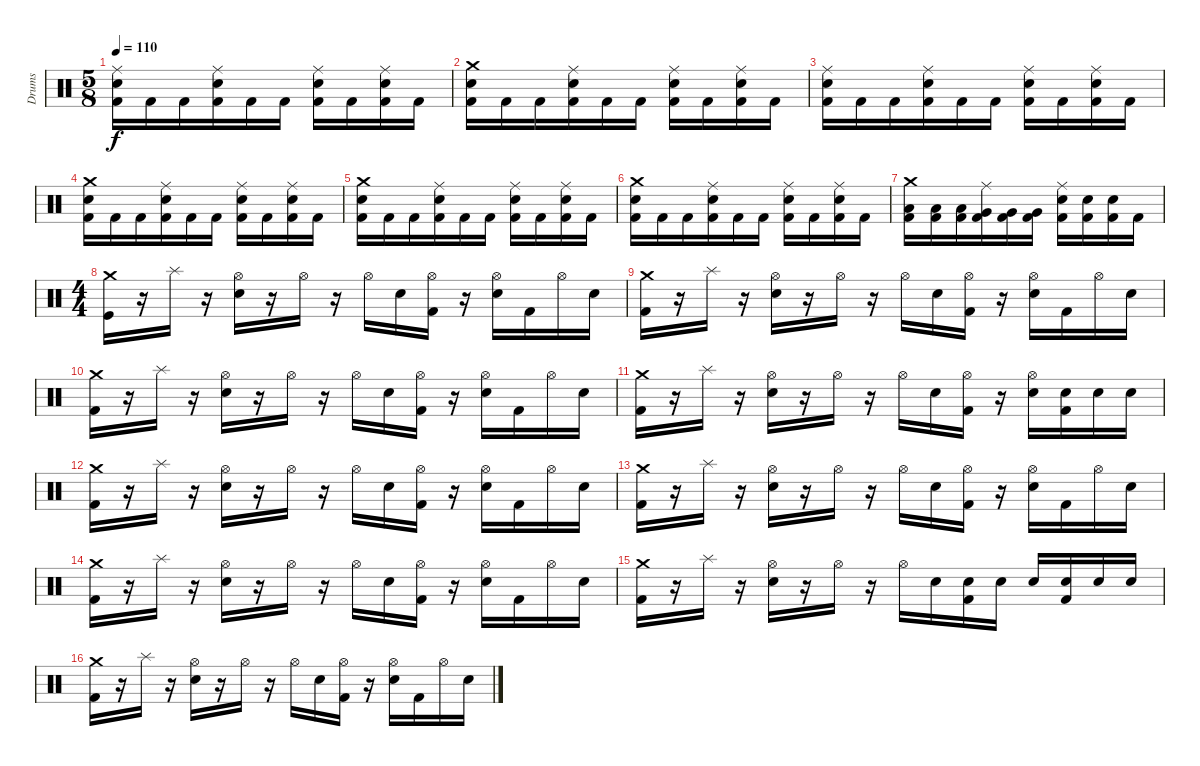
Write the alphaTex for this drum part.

\track ("Drums" "Drums") {instrument percussion}
\staff {score}
\articulation defaults
\ts (5 8)
\tempo 110
\clef neutral
\ks c
("Ride (middle)" "Electric Snare (hit)" "Kick (hit) 2").16{dy f} "Kick (hit) 2".16 "Kick (hit) 2".16 ("Ride (middle)" "Electric Snare (hit)" "Kick (hit) 2").16 "Kick (hit) 2".16 "Kick (hit) 2".16 ("Ride (middle)" "Electric Snare (hit)" "Kick (hit) 2").16 "Kick (hit) 2".16 ("Ride (middle)" "Electric Snare (hit)" "Kick (hit) 2").16 "Kick (hit) 2".16 |
("Crash medium (hit)" "Electric Snare (hit)" "Kick (hit) 2").16 "Kick (hit) 2".16 "Kick (hit) 2".16 ("Ride (middle)" "Electric Snare (hit)" "Kick (hit) 2").16 "Kick (hit) 2".16 "Kick (hit) 2".16 ("Ride (middle)" "Electric Snare (hit)" "Kick (hit) 2").16 "Kick (hit) 2".16 ("Ride (middle)" "Electric Snare (hit)" "Kick (hit) 2").16 "Kick (hit) 2".16 |
("Ride (middle)" "Electric Snare (hit)" "Kick (hit) 2").16 "Kick (hit) 2".16 "Kick (hit) 2".16 ("Ride (middle)" "Electric Snare (hit)" "Kick (hit) 2").16 "Kick (hit) 2".16 "Kick (hit) 2".16 ("Ride (middle)" "Electric Snare (hit)" "Kick (hit) 2").16 "Kick (hit) 2".16 ("Ride (middle)" "Electric Snare (hit)" "Kick (hit) 2").16 "Kick (hit) 2".16 |
("Crash medium (hit)" "Electric Snare (hit)" "Kick (hit) 2").16 "Kick (hit) 2".16 "Kick (hit) 2".16 ("Ride (middle)" "Electric Snare (hit)" "Kick (hit) 2").16 "Kick (hit) 2".16 "Kick (hit) 2".16 ("Ride (middle)" "Electric Snare (hit)" "Kick (hit) 2").16 "Kick (hit) 2".16 ("Ride (middle)" "Electric Snare (hit)" "Kick (hit) 2").16 "Kick (hit) 2".16 |
("Crash medium (hit)" "Electric Snare (hit)" "Kick (hit) 2").16 "Kick (hit) 2".16 "Kick (hit) 2".16 ("Ride (middle)" "Electric Snare (hit)" "Kick (hit) 2").16 "Kick (hit) 2".16 "Kick (hit) 2".16 ("Ride (middle)" "Electric Snare (hit)" "Kick (hit) 2").16 "Kick (hit) 2".16 ("Ride (middle)" "Electric Snare (hit)" "Kick (hit) 2").16 "Kick (hit) 2".16 |
("Crash medium (hit)" "Electric Snare (hit)" "Kick (hit) 2").16 "Kick (hit) 2".16 "Kick (hit) 2".16 ("Ride (middle)" "Electric Snare (hit)" "Kick (hit) 2").16 "Kick (hit) 2".16 "Kick (hit) 2".16 ("Ride (middle)" "Electric Snare (hit)" "Kick (hit) 2").16 "Kick (hit) 2".16 ("Ride (middle)" "Electric Snare (hit)" "Kick (hit) 2").16 "Kick (hit) 2".16 |
("Crash medium (hit)" "Low Tom (hit)" "Kick (hit) 2").16 ("Low Tom (hit)" "Kick (hit) 2").16 ("Low Tom (hit)" "Kick (hit) 2").16 ("Ride (middle)" "Very Low Tom (hit)" "Kick (hit) 2").16 ("Very Low Tom (hit)" "Kick (hit) 2").16 ("Very Low Tom (hit)" "Kick (hit) 2").16 ("Ride (middle)" "Electric Snare (hit)" "Kick (hit) 2").16 ("Electric Snare (hit)" "Kick (hit) 2").16 ("Electric Snare (hit)" "Kick (hit) 2").16 "Kick (hit) 2".16 |
\ts (4 4)
("Crash medium (hit)" "Kick (hit)").16 r.16 "Splash (hit)".16 r.16 ("Hi-Hat (open)" "Electric Snare (hit)").16 r.16 "Hi-Hat (open)".16 r.16 "Hi-Hat (open)".16 "Electric Snare (hit)".16 ("Hi-Hat (open)" "Kick (hit) 2").16 r.16 ("Hi-Hat (open)" "Electric Snare (hit)").16 "Kick (hit) 2".16 "Hi-Hat (open)".16 "Electric Snare (hit)".16 |
("Crash medium (hit)" "Kick (hit) 2").16 r.16 "Splash (hit)".16 r.16 ("Hi-Hat (open)" "Electric Snare (hit)").16 r.16 "Hi-Hat (open)".16 r.16 "Hi-Hat (open)".16 "Electric Snare (hit)".16 ("Hi-Hat (open)" "Kick (hit) 2").16 r.16 ("Hi-Hat (open)" "Electric Snare (hit)").16 "Kick (hit) 2".16 "Hi-Hat (open)".16 "Electric Snare (hit)".16 |
("Crash medium (hit)" "Kick (hit) 2").16 r.16 "Splash (hit)".16 r.16 ("Hi-Hat (open)" "Electric Snare (hit)").16 r.16 "Hi-Hat (open)".16 r.16 "Hi-Hat (open)".16 "Electric Snare (hit)".16 ("Hi-Hat (open)" "Kick (hit) 2").16 r.16 ("Hi-Hat (open)" "Electric Snare (hit)").16 "Kick (hit) 2".16 "Hi-Hat (open)".16 "Electric Snare (hit)".16 |
("Crash medium (hit)" "Kick (hit) 2").16 r.16 "Splash (hit)".16 r.16 ("Hi-Hat (open)" "Electric Snare (hit)").16 r.16 "Hi-Hat (open)".16 r.16 "Hi-Hat (open)".16 "Electric Snare (hit)".16 ("Hi-Hat (open)" "Kick (hit) 2").16 r.16 ("Hi-Hat (open)" "Electric Snare (hit)").16 ("Electric Snare (hit)" "Kick (hit) 2").16 "Electric Snare (hit)".16 "Electric Snare (hit)".16 |
("Crash medium (hit)" "Kick (hit) 2").16 r.16 "Splash (hit)".16 r.16 ("Hi-Hat (open)" "Electric Snare (hit)").16 r.16 "Hi-Hat (open)".16 r.16 "Hi-Hat (open)".16 "Electric Snare (hit)".16 ("Hi-Hat (open)" "Kick (hit) 2").16 r.16 ("Hi-Hat (open)" "Electric Snare (hit)").16 "Kick (hit) 2".16 "Hi-Hat (open)".16 "Electric Snare (hit)".16 |
("Crash medium (hit)" "Kick (hit) 2").16 r.16 "Splash (hit)".16 r.16 ("Hi-Hat (open)" "Electric Snare (hit)").16 r.16 "Hi-Hat (open)".16 r.16 "Hi-Hat (open)".16 "Electric Snare (hit)".16 ("Hi-Hat (open)" "Kick (hit) 2").16 r.16 ("Hi-Hat (open)" "Electric Snare (hit)").16 "Kick (hit) 2".16 "Hi-Hat (open)".16 "Electric Snare (hit)".16 |
("Crash medium (hit)" "Kick (hit) 2").16 r.16 "Splash (hit)".16 r.16 ("Hi-Hat (open)" "Electric Snare (hit)").16 r.16 "Hi-Hat (open)".16 r.16 "Hi-Hat (open)".16 "Electric Snare (hit)".16 ("Hi-Hat (open)" "Kick (hit) 2").16 r.16 ("Hi-Hat (open)" "Electric Snare (hit)").16 "Kick (hit) 2".16 "Hi-Hat (open)".16 "Electric Snare (hit)".16 |
("Crash medium (hit)" "Kick (hit) 2").16 r.16 "Splash (hit)".16 r.16 ("Hi-Hat (open)" "Electric Snare (hit)").16 r.16 "Hi-Hat (open)".16 r.16 "Hi-Hat (open)".16 "Electric Snare (hit)".16 ("Electric Snare (hit)" "Kick (hit) 2").16 "Electric Snare (hit)".16 "Electric Snare (hit)".16 ("Electric Snare (hit)" "Kick (hit) 2").16 "Electric Snare (hit)".16 "Electric Snare (hit)".16 |
("Crash medium (hit)" "Kick (hit) 2").16 r.16 "Splash (hit)".16 r.16 ("Hi-Hat (open)" "Electric Snare (hit)").16 r.16 "Hi-Hat (open)".16 r.16 "Hi-Hat (open)".16 "Electric Snare (hit)".16 ("Hi-Hat (open)" "Kick (hit) 2").16 r.16 ("Hi-Hat (open)" "Electric Snare (hit)").16 "Kick (hit) 2".16 "Hi-Hat (open)".16 "Electric Snare (hit)".16
